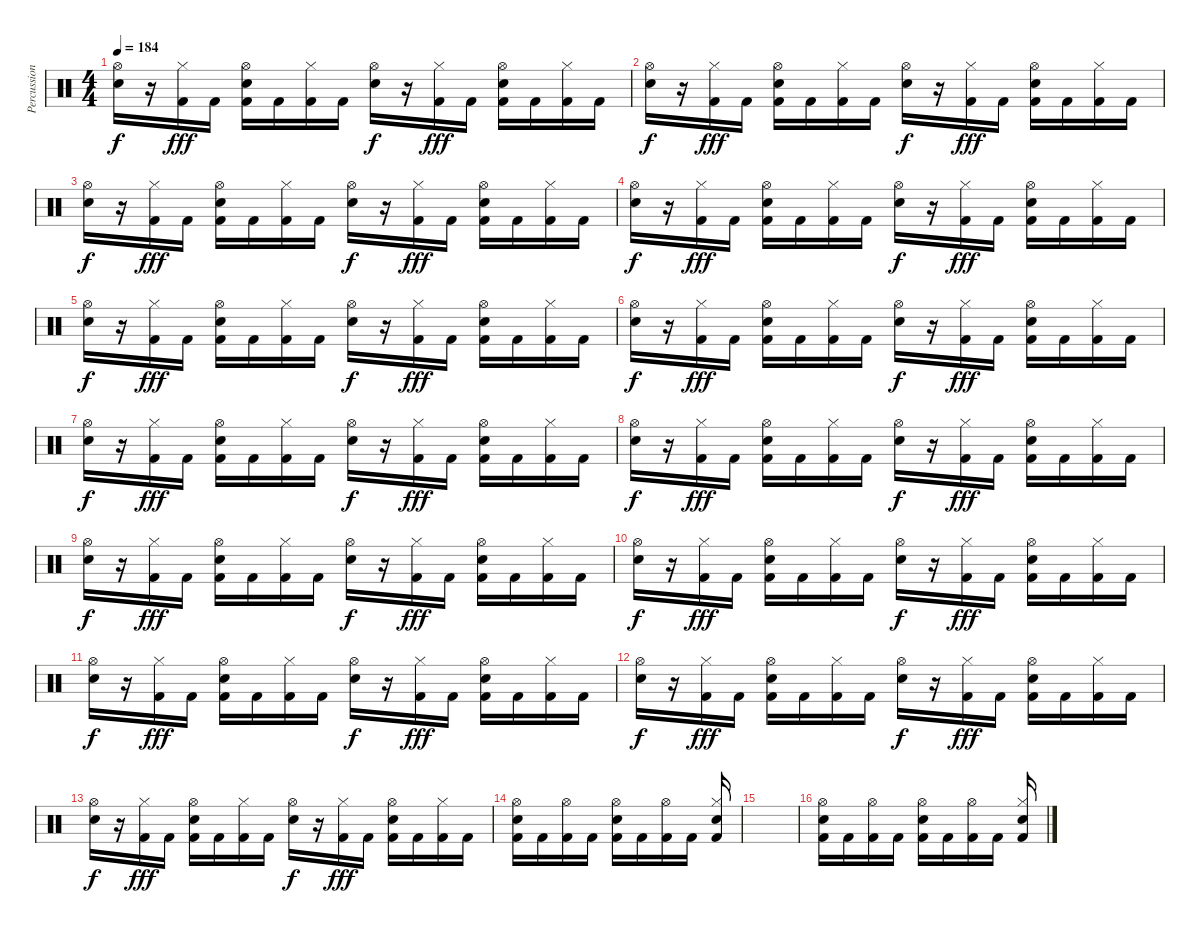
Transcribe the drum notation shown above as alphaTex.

\track ("Percussion" "Percussion") {instrument percussion}
\staff {score}
\articulation defaults
\ts (4 4)
\tempo 184
\clef neutral
\ks c
("Hi-Hat (open)" "Snare (hit) 2").16{dy f} r.16 ("Hi-Hat (closed)" "Kick (hit) 2").16{dy fff} "Kick (hit) 2".16 ("Hi-Hat (open)" "Snare (hit) 2" "Kick (hit) 2").16 "Kick (hit) 2".16 ("Hi-Hat (closed)" "Kick (hit) 2").16 "Kick (hit) 2".16 ("Hi-Hat (open)" "Snare (hit) 2").16{dy f} r.16 ("Hi-Hat (closed)" "Kick (hit) 2").16{dy fff} "Kick (hit) 2".16 ("Hi-Hat (open)" "Snare (hit) 2" "Kick (hit) 2").16 "Kick (hit) 2".16 ("Hi-Hat (closed)" "Kick (hit) 2").16 "Kick (hit) 2".16 |
("Hi-Hat (open)" "Snare (hit) 2").16{dy f} r.16 ("Hi-Hat (closed)" "Kick (hit) 2").16{dy fff} "Kick (hit) 2".16 ("Hi-Hat (open)" "Snare (hit) 2" "Kick (hit) 2").16 "Kick (hit) 2".16 ("Hi-Hat (closed)" "Kick (hit) 2").16 "Kick (hit) 2".16 ("Hi-Hat (open)" "Snare (hit) 2").16{dy f} r.16 ("Hi-Hat (closed)" "Kick (hit) 2").16{dy fff} "Kick (hit) 2".16 ("Hi-Hat (open)" "Snare (hit) 2" "Kick (hit) 2").16 "Kick (hit) 2".16 ("Hi-Hat (closed)" "Kick (hit) 2").16 "Kick (hit) 2".16 |
("Hi-Hat (open)" "Snare (hit) 2").16{dy f} r.16 ("Hi-Hat (closed)" "Kick (hit) 2").16{dy fff} "Kick (hit) 2".16 ("Hi-Hat (open)" "Snare (hit) 2" "Kick (hit) 2").16 "Kick (hit) 2".16 ("Hi-Hat (closed)" "Kick (hit) 2").16 "Kick (hit) 2".16 ("Hi-Hat (open)" "Snare (hit) 2").16{dy f} r.16 ("Hi-Hat (closed)" "Kick (hit) 2").16{dy fff} "Kick (hit) 2".16 ("Hi-Hat (open)" "Snare (hit) 2" "Kick (hit) 2").16 "Kick (hit) 2".16 ("Hi-Hat (closed)" "Kick (hit) 2").16 "Kick (hit) 2".16 |
("Hi-Hat (open)" "Snare (hit) 2").16{dy f} r.16 ("Hi-Hat (closed)" "Kick (hit) 2").16{dy fff} "Kick (hit) 2".16 ("Hi-Hat (open)" "Snare (hit) 2" "Kick (hit) 2").16 "Kick (hit) 2".16 ("Hi-Hat (closed)" "Kick (hit) 2").16 "Kick (hit) 2".16 ("Hi-Hat (open)" "Snare (hit) 2").16{dy f} r.16 ("Hi-Hat (closed)" "Kick (hit) 2").16{dy fff} "Kick (hit) 2".16 ("Hi-Hat (open)" "Snare (hit) 2" "Kick (hit) 2").16 "Kick (hit) 2".16 ("Hi-Hat (closed)" "Kick (hit) 2").16 "Kick (hit) 2".16 |
("Hi-Hat (open)" "Snare (hit) 2").16{dy f} r.16 ("Hi-Hat (closed)" "Kick (hit) 2").16{dy fff} "Kick (hit) 2".16 ("Hi-Hat (open)" "Snare (hit) 2" "Kick (hit) 2").16 "Kick (hit) 2".16 ("Hi-Hat (closed)" "Kick (hit) 2").16 "Kick (hit) 2".16 ("Hi-Hat (open)" "Snare (hit) 2").16{dy f} r.16 ("Hi-Hat (closed)" "Kick (hit) 2").16{dy fff} "Kick (hit) 2".16 ("Hi-Hat (open)" "Snare (hit) 2" "Kick (hit) 2").16 "Kick (hit) 2".16 ("Hi-Hat (closed)" "Kick (hit) 2").16 "Kick (hit) 2".16 |
("Hi-Hat (open)" "Snare (hit) 2").16{dy f} r.16 ("Hi-Hat (closed)" "Kick (hit) 2").16{dy fff} "Kick (hit) 2".16 ("Hi-Hat (open)" "Snare (hit) 2" "Kick (hit) 2").16 "Kick (hit) 2".16 ("Hi-Hat (closed)" "Kick (hit) 2").16 "Kick (hit) 2".16 ("Hi-Hat (open)" "Snare (hit) 2").16{dy f} r.16 ("Hi-Hat (closed)" "Kick (hit) 2").16{dy fff} "Kick (hit) 2".16 ("Hi-Hat (open)" "Snare (hit) 2" "Kick (hit) 2").16 "Kick (hit) 2".16 ("Hi-Hat (closed)" "Kick (hit) 2").16 "Kick (hit) 2".16 |
("Hi-Hat (open)" "Snare (hit) 2").16{dy f} r.16 ("Hi-Hat (closed)" "Kick (hit) 2").16{dy fff} "Kick (hit) 2".16 ("Hi-Hat (open)" "Snare (hit) 2" "Kick (hit) 2").16 "Kick (hit) 2".16 ("Hi-Hat (closed)" "Kick (hit) 2").16 "Kick (hit) 2".16 ("Hi-Hat (open)" "Snare (hit) 2").16{dy f} r.16 ("Hi-Hat (closed)" "Kick (hit) 2").16{dy fff} "Kick (hit) 2".16 ("Hi-Hat (open)" "Snare (hit) 2" "Kick (hit) 2").16 "Kick (hit) 2".16 ("Hi-Hat (closed)" "Kick (hit) 2").16 "Kick (hit) 2".16 |
("Hi-Hat (open)" "Snare (hit) 2").16{dy f} r.16 ("Hi-Hat (closed)" "Kick (hit) 2").16{dy fff} "Kick (hit) 2".16 ("Hi-Hat (open)" "Snare (hit) 2" "Kick (hit) 2").16 "Kick (hit) 2".16 ("Hi-Hat (closed)" "Kick (hit) 2").16 "Kick (hit) 2".16 ("Hi-Hat (open)" "Snare (hit) 2").16{dy f} r.16 ("Hi-Hat (closed)" "Kick (hit) 2").16{dy fff} "Kick (hit) 2".16 ("Hi-Hat (open)" "Snare (hit) 2" "Kick (hit) 2").16 "Kick (hit) 2".16 ("Hi-Hat (closed)" "Kick (hit) 2").16 "Kick (hit) 2".16 |
("Hi-Hat (open)" "Snare (hit) 2").16{dy f} r.16 ("Hi-Hat (closed)" "Kick (hit) 2").16{dy fff} "Kick (hit) 2".16 ("Hi-Hat (open)" "Snare (hit) 2" "Kick (hit) 2").16 "Kick (hit) 2".16 ("Hi-Hat (closed)" "Kick (hit) 2").16 "Kick (hit) 2".16 ("Hi-Hat (open)" "Snare (hit) 2").16{dy f} r.16 ("Hi-Hat (closed)" "Kick (hit) 2").16{dy fff} "Kick (hit) 2".16 ("Hi-Hat (open)" "Snare (hit) 2" "Kick (hit) 2").16 "Kick (hit) 2".16 ("Hi-Hat (closed)" "Kick (hit) 2").16 "Kick (hit) 2".16 |
("Hi-Hat (open)" "Snare (hit) 2").16{dy f} r.16 ("Hi-Hat (closed)" "Kick (hit) 2").16{dy fff} "Kick (hit) 2".16 ("Hi-Hat (open)" "Snare (hit) 2" "Kick (hit) 2").16 "Kick (hit) 2".16 ("Hi-Hat (closed)" "Kick (hit) 2").16 "Kick (hit) 2".16 ("Hi-Hat (open)" "Snare (hit) 2").16{dy f} r.16 ("Hi-Hat (closed)" "Kick (hit) 2").16{dy fff} "Kick (hit) 2".16 ("Hi-Hat (open)" "Snare (hit) 2" "Kick (hit) 2").16 "Kick (hit) 2".16 ("Hi-Hat (closed)" "Kick (hit) 2").16 "Kick (hit) 2".16 |
("Hi-Hat (open)" "Snare (hit) 2").16{dy f} r.16 ("Hi-Hat (closed)" "Kick (hit) 2").16{dy fff} "Kick (hit) 2".16 ("Hi-Hat (open)" "Snare (hit) 2" "Kick (hit) 2").16 "Kick (hit) 2".16 ("Hi-Hat (closed)" "Kick (hit) 2").16 "Kick (hit) 2".16 ("Hi-Hat (open)" "Snare (hit) 2").16{dy f} r.16 ("Hi-Hat (closed)" "Kick (hit) 2").16{dy fff} "Kick (hit) 2".16 ("Hi-Hat (open)" "Snare (hit) 2" "Kick (hit) 2").16 "Kick (hit) 2".16 ("Hi-Hat (closed)" "Kick (hit) 2").16 "Kick (hit) 2".16 |
("Hi-Hat (open)" "Snare (hit) 2").16{dy f} r.16 ("Hi-Hat (closed)" "Kick (hit) 2").16{dy fff} "Kick (hit) 2".16 ("Hi-Hat (open)" "Snare (hit) 2" "Kick (hit) 2").16 "Kick (hit) 2".16 ("Hi-Hat (closed)" "Kick (hit) 2").16 "Kick (hit) 2".16 ("Hi-Hat (open)" "Snare (hit) 2").16{dy f} r.16 ("Hi-Hat (closed)" "Kick (hit) 2").16{dy fff} "Kick (hit) 2".16 ("Hi-Hat (open)" "Snare (hit) 2" "Kick (hit) 2").16 "Kick (hit) 2".16 ("Hi-Hat (closed)" "Kick (hit) 2").16 "Kick (hit) 2".16 |
("Hi-Hat (open)" "Snare (hit) 2").16{dy f} r.16 ("Hi-Hat (closed)" "Kick (hit) 2").16{dy fff} "Kick (hit) 2".16 ("Hi-Hat (open)" "Snare (hit) 2" "Kick (hit) 2").16 "Kick (hit) 2".16 ("Hi-Hat (closed)" "Kick (hit) 2").16 "Kick (hit) 2".16 ("Hi-Hat (open)" "Snare (hit) 2").16{dy f} r.16 ("Hi-Hat (closed)" "Kick (hit) 2").16{dy fff} "Kick (hit) 2".16 ("Hi-Hat (open)" "Snare (hit) 2" "Kick (hit) 2").16 "Kick (hit) 2".16 ("Hi-Hat (closed)" "Kick (hit) 2").16 "Kick (hit) 2".16 |
("Hi-Hat (open)" "Snare (hit) 2" "Kick (hit) 2").16 "Kick (hit) 2".16 ("Hi-Hat (open)" "Kick (hit) 2").16 "Kick (hit) 2".16 ("Hi-Hat (open)" "Snare (hit) 2" "Kick (hit) 2").16 "Kick (hit) 2".16 ("Hi-Hat (open)" "Kick (hit) 2").16 "Kick (hit) 2".16 ("Hi-Hat (closed)" "Snare (hit) 2" "Kick (hit) 2").16 |
|
("Hi-Hat (open)" "Snare (hit) 2" "Kick (hit) 2").16 "Kick (hit) 2".16 ("Hi-Hat (open)" "Kick (hit) 2").16 "Kick (hit) 2".16 ("Hi-Hat (open)" "Snare (hit) 2" "Kick (hit) 2").16 "Kick (hit) 2".16 ("Hi-Hat (open)" "Kick (hit) 2").16 "Kick (hit) 2".16 ("Hi-Hat (closed)" "Snare (hit) 2" "Kick (hit) 2").16
